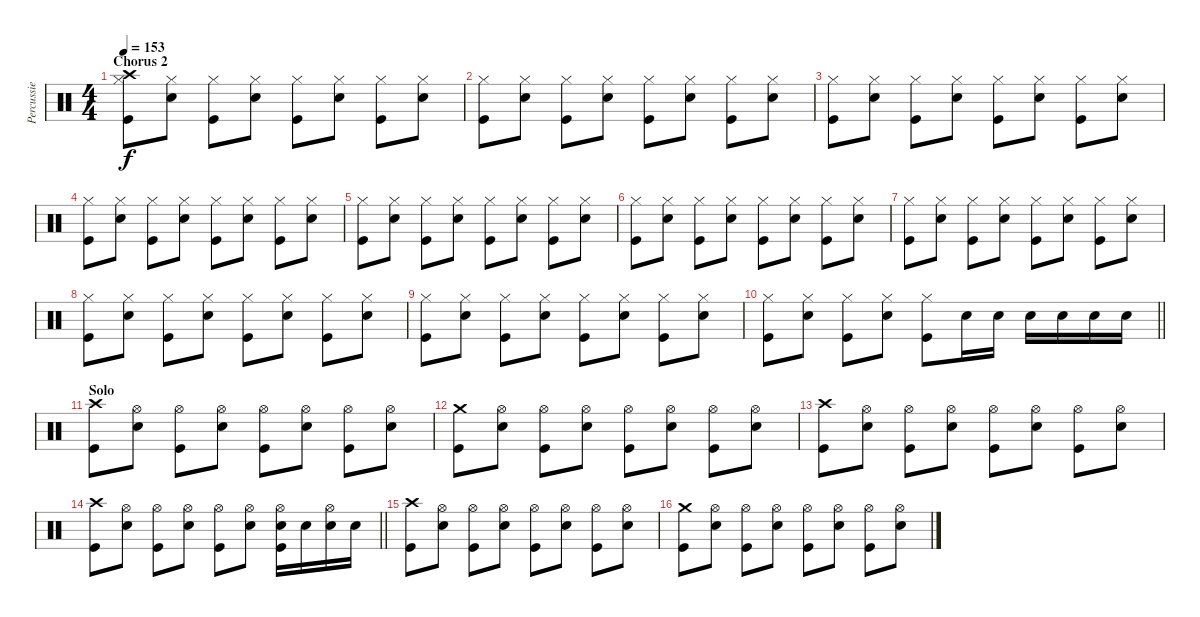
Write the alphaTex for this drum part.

\track ("Percussie George Schwindt" "Percussie ") {instrument percussion}
\staff {score}
\articulation defaults
\ts (4 4)
\section ("" "Chorus 2")
\tempo 153
\clef neutral
\ks c
("Crash high (hit)" "Hi-Hat (closed)" "Kick (hit)").8{dy f} ("Electric Snare (hit)" "Hi-Hat (closed)").8 ("Hi-Hat (closed)" "Kick (hit)").8 ("Electric Snare (hit)" "Hi-Hat (closed)").8 ("Hi-Hat (closed)" "Kick (hit)").8 ("Electric Snare (hit)" "Hi-Hat (closed)").8 ("Hi-Hat (closed)" "Kick (hit)").8 ("Electric Snare (hit)" "Hi-Hat (closed)").8 |
("Hi-Hat (closed)" "Kick (hit)").8 ("Electric Snare (hit)" "Hi-Hat (closed)").8 ("Hi-Hat (closed)" "Kick (hit)").8 ("Electric Snare (hit)" "Hi-Hat (closed)").8 ("Hi-Hat (closed)" "Kick (hit)").8 ("Electric Snare (hit)" "Hi-Hat (closed)").8 ("Hi-Hat (closed)" "Kick (hit)").8 ("Electric Snare (hit)" "Hi-Hat (closed)").8 |
("Hi-Hat (closed)" "Kick (hit)").8 ("Electric Snare (hit)" "Hi-Hat (closed)").8 ("Hi-Hat (closed)" "Kick (hit)").8 ("Electric Snare (hit)" "Hi-Hat (closed)").8 ("Hi-Hat (closed)" "Kick (hit)").8 ("Electric Snare (hit)" "Hi-Hat (closed)").8 ("Hi-Hat (closed)" "Kick (hit)").8 ("Electric Snare (hit)" "Hi-Hat (closed)").8 |
("Hi-Hat (closed)" "Kick (hit)").8 ("Electric Snare (hit)" "Hi-Hat (closed)").8 ("Hi-Hat (closed)" "Kick (hit)").8 ("Electric Snare (hit)" "Hi-Hat (closed)").8 ("Hi-Hat (closed)" "Kick (hit)").8 ("Electric Snare (hit)" "Hi-Hat (closed)").8 ("Hi-Hat (closed)" "Kick (hit)").8 ("Electric Snare (hit)" "Hi-Hat (closed)").8 |
("Hi-Hat (closed)" "Kick (hit)").8 ("Electric Snare (hit)" "Hi-Hat (closed)").8 ("Hi-Hat (closed)" "Kick (hit)").8 ("Electric Snare (hit)" "Hi-Hat (closed)").8 ("Hi-Hat (closed)" "Kick (hit)").8 ("Electric Snare (hit)" "Hi-Hat (closed)").8 ("Hi-Hat (closed)" "Kick (hit)").8 ("Electric Snare (hit)" "Hi-Hat (closed)").8 |
("Hi-Hat (closed)" "Kick (hit)").8 ("Electric Snare (hit)" "Hi-Hat (closed)").8 ("Hi-Hat (closed)" "Kick (hit)").8 ("Electric Snare (hit)" "Hi-Hat (closed)").8 ("Hi-Hat (closed)" "Kick (hit)").8 ("Electric Snare (hit)" "Hi-Hat (closed)").8 ("Hi-Hat (closed)" "Kick (hit)").8 ("Electric Snare (hit)" "Hi-Hat (closed)").8 |
("Hi-Hat (closed)" "Kick (hit)").8 ("Electric Snare (hit)" "Hi-Hat (closed)").8 ("Hi-Hat (closed)" "Kick (hit)").8 ("Electric Snare (hit)" "Hi-Hat (closed)").8 ("Hi-Hat (closed)" "Kick (hit)").8 ("Electric Snare (hit)" "Hi-Hat (closed)").8 ("Hi-Hat (closed)" "Kick (hit)").8 ("Electric Snare (hit)" "Hi-Hat (closed)").8 |
("Hi-Hat (closed)" "Kick (hit)").8 ("Electric Snare (hit)" "Hi-Hat (closed)").8 ("Hi-Hat (closed)" "Kick (hit)").8 ("Electric Snare (hit)" "Hi-Hat (closed)").8 ("Hi-Hat (closed)" "Kick (hit)").8 ("Electric Snare (hit)" "Hi-Hat (closed)").8 ("Hi-Hat (closed)" "Kick (hit)").8 ("Electric Snare (hit)" "Hi-Hat (closed)").8 |
("Hi-Hat (closed)" "Kick (hit)").8 ("Electric Snare (hit)" "Hi-Hat (closed)").8 ("Hi-Hat (closed)" "Kick (hit)").8 ("Electric Snare (hit)" "Hi-Hat (closed)").8 ("Hi-Hat (closed)" "Kick (hit)").8 ("Electric Snare (hit)" "Hi-Hat (closed)").8 ("Hi-Hat (closed)" "Kick (hit)").8 ("Electric Snare (hit)" "Hi-Hat (closed)").8 |
\barLineRight lightlight
("Hi-Hat (closed)" "Kick (hit)").8 ("Electric Snare (hit)" "Hi-Hat (closed)").8 ("Hi-Hat (closed)" "Kick (hit)").8 ("Electric Snare (hit)" "Hi-Hat (closed)").8 ("Hi-Hat (closed)" "Kick (hit)").8 "Electric Snare (hit)".16 "Electric Snare (hit)".16 "Electric Snare (hit)".16 "Electric Snare (hit)".16 "Electric Snare (hit)".16 "Electric Snare (hit)".16 |
\section ("" "Solo")
("Crash high (hit)" "Kick (hit)").8 ("Electric Snare (hit)" "Hi-Hat (open)").8 ("Hi-Hat (open)" "Kick (hit)").8 ("Electric Snare (hit)" "Hi-Hat (open)").8 ("Hi-Hat (open)" "Kick (hit)").8 ("Electric Snare (hit)" "Hi-Hat (open)").8 ("Hi-Hat (open)" "Kick (hit)").8 ("Electric Snare (hit)" "Hi-Hat (open)").8 |
("Crash medium (hit)" "Kick (hit)").8 ("Electric Snare (hit)" "Hi-Hat (open)").8 ("Hi-Hat (open)" "Kick (hit)").8 ("Electric Snare (hit)" "Hi-Hat (open)").8 ("Hi-Hat (open)" "Kick (hit)").8 ("Electric Snare (hit)" "Hi-Hat (open)").8 ("Hi-Hat (open)" "Kick (hit)").8 ("Electric Snare (hit)" "Hi-Hat (open)").8 |
("Crash high (hit)" "Kick (hit)").8 ("Electric Snare (hit)" "Hi-Hat (open)").8 ("Hi-Hat (open)" "Kick (hit)").8 ("Electric Snare (hit)" "Hi-Hat (open)").8 ("Hi-Hat (open)" "Kick (hit)").8 ("Electric Snare (hit)" "Hi-Hat (open)").8 ("Hi-Hat (open)" "Kick (hit)").8 ("Electric Snare (hit)" "Hi-Hat (open)").8 |
\barLineRight lightlight
("Crash high (hit)" "Kick (hit)").8 ("Electric Snare (hit)" "Hi-Hat (open)").8 ("Hi-Hat (open)" "Kick (hit)").8 ("Electric Snare (hit)" "Hi-Hat (open)").8 ("Hi-Hat (open)" "Kick (hit)").8 ("Electric Snare (hit)" "Hi-Hat (open)").8 ("Electric Snare (hit)" "Hi-Hat (open)" "Kick (hit)").16 "Electric Snare (hit)".16 ("Electric Snare (hit)" "Hi-Hat (open)").16 "Electric Snare (hit)".16 |
("Crash high (hit)" "Kick (hit)").8 ("Electric Snare (hit)" "Hi-Hat (open)").8 ("Hi-Hat (open)" "Kick (hit)").8 ("Electric Snare (hit)" "Hi-Hat (open)").8 ("Hi-Hat (open)" "Kick (hit)").8 ("Electric Snare (hit)" "Hi-Hat (open)").8 ("Hi-Hat (open)" "Kick (hit)").8 ("Electric Snare (hit)" "Hi-Hat (open)").8 |
("Crash medium (hit)" "Kick (hit)").8 ("Electric Snare (hit)" "Hi-Hat (open)").8 ("Hi-Hat (open)" "Kick (hit)").8 ("Electric Snare (hit)" "Hi-Hat (open)").8 ("Hi-Hat (open)" "Kick (hit)").8 ("Electric Snare (hit)" "Hi-Hat (open)").8 ("Hi-Hat (open)" "Kick (hit)").8 ("Electric Snare (hit)" "Hi-Hat (open)").8
